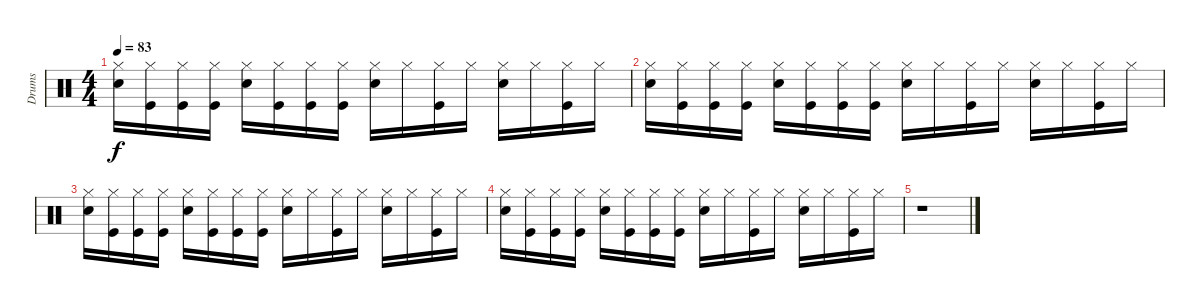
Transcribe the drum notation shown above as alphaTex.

\track ("Drums" "Drums") {instrument percussion}
\staff {score}
\articulation defaults
\ts (4 4)
\tempo 83
\clef neutral
\ks c
("Snare (hit) 2" "Hi-Hat (closed)").16{dy f} ("Kick (hit)" "Hi-Hat (closed)").16 ("Kick (hit)" "Hi-Hat (closed)").16 ("Kick (hit)" "Hi-Hat (closed)").16 ("Snare (hit) 2" "Hi-Hat (closed)").16 ("Kick (hit)" "Hi-Hat (closed)").16 ("Kick (hit)" "Hi-Hat (closed)").16 ("Kick (hit)" "Hi-Hat (closed)").16 ("Snare (hit) 2" "Hi-Hat (closed)").16 "Hi-Hat (closed)".16 ("Kick (hit)" "Hi-Hat (closed)").16 "Hi-Hat (closed)".16 ("Snare (hit) 2" "Hi-Hat (closed)").16 "Hi-Hat (closed)".16 ("Kick (hit)" "Hi-Hat (closed)").16 "Hi-Hat (closed)".16 |
("Snare (hit) 2" "Hi-Hat (closed)").16 ("Kick (hit)" "Hi-Hat (closed)").16 ("Kick (hit)" "Hi-Hat (closed)").16 ("Kick (hit)" "Hi-Hat (closed)").16 ("Snare (hit) 2" "Hi-Hat (closed)").16 ("Kick (hit)" "Hi-Hat (closed)").16 ("Kick (hit)" "Hi-Hat (closed)").16 ("Kick (hit)" "Hi-Hat (closed)").16 ("Snare (hit) 2" "Hi-Hat (closed)").16 "Hi-Hat (closed)".16 ("Kick (hit)" "Hi-Hat (closed)").16 "Hi-Hat (closed)".16 ("Snare (hit) 2" "Hi-Hat (closed)").16 "Hi-Hat (closed)".16 ("Kick (hit)" "Hi-Hat (closed)").16 "Hi-Hat (closed)".16 |
("Snare (hit) 2" "Hi-Hat (closed)").16 ("Kick (hit)" "Hi-Hat (closed)").16 ("Kick (hit)" "Hi-Hat (closed)").16 ("Kick (hit)" "Hi-Hat (closed)").16 ("Snare (hit) 2" "Hi-Hat (closed)").16 ("Kick (hit)" "Hi-Hat (closed)").16 ("Kick (hit)" "Hi-Hat (closed)").16 ("Kick (hit)" "Hi-Hat (closed)").16 ("Snare (hit) 2" "Hi-Hat (closed)").16 "Hi-Hat (closed)".16 ("Kick (hit)" "Hi-Hat (closed)").16 "Hi-Hat (closed)".16 ("Snare (hit) 2" "Hi-Hat (closed)").16 "Hi-Hat (closed)".16 ("Kick (hit)" "Hi-Hat (closed)").16 "Hi-Hat (closed)".16 |
("Snare (hit) 2" "Hi-Hat (closed)").16 ("Kick (hit)" "Hi-Hat (closed)").16 ("Kick (hit)" "Hi-Hat (closed)").16 ("Kick (hit)" "Hi-Hat (closed)").16 ("Snare (hit) 2" "Hi-Hat (closed)").16 ("Kick (hit)" "Hi-Hat (closed)").16 ("Kick (hit)" "Hi-Hat (closed)").16 ("Kick (hit)" "Hi-Hat (closed)").16 ("Snare (hit) 2" "Hi-Hat (closed)").16 "Hi-Hat (closed)".16 ("Kick (hit)" "Hi-Hat (closed)").16 "Hi-Hat (closed)".16 ("Snare (hit) 2" "Hi-Hat (closed)").16 "Hi-Hat (closed)".16 ("Kick (hit)" "Hi-Hat (closed)").16 "Hi-Hat (closed)".16 |
r.1
